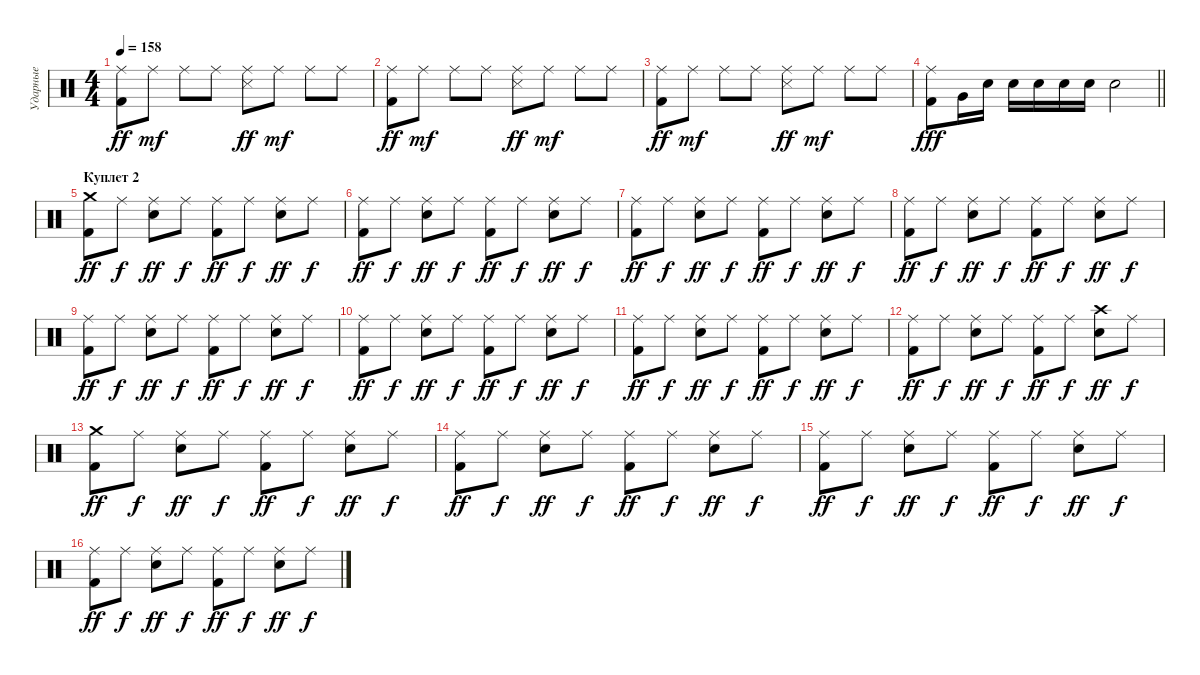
\track ("Ударные" "Ударные") {instrument percussion}
\staff {score}
\articulation defaults
\ts (4 4)
\tempo 158
\clef neutral
\ks c
("Ride (middle)" "Kick (hit) 2").8{dy ff} "Ride (middle)".8{dy mf} "Ride (middle)".8 "Ride (middle)".8 ("Ride (middle)" "Snare (side stick) 3").8{dy ff} "Ride (middle)".8{dy mf} "Ride (middle)".8 "Ride (middle)".8 |
("Ride (middle)" "Kick (hit) 2").8{dy ff} "Ride (middle)".8{dy mf} "Ride (middle)".8 "Ride (middle)".8 ("Ride (middle)" "Snare (side stick) 3").8{dy ff} "Ride (middle)".8{dy mf} "Ride (middle)".8 "Ride (middle)".8 |
("Ride (middle)" "Kick (hit) 2").8{dy ff} "Ride (middle)".8{dy mf} "Ride (middle)".8 "Ride (middle)".8 ("Ride (middle)" "Snare (side stick) 3").8{dy ff} "Ride (middle)".8{dy mf} "Ride (middle)".8 "Ride (middle)".8 |
\barLineRight lightlight
("Ride (middle)" "Kick (hit) 2").8{dy fff} "Very Low Tom (hit)".16 "Electric Snare (hit)".16 "Electric Snare (hit)".16 "Electric Snare (hit)".16 "Electric Snare (hit)".16 "Electric Snare (hit)".16 "Snare (hit) 2".2 |
\section ("" "Куплет 2")
("Crash medium (hit)" "Kick (hit) 2").8{dy ff} "Ride (middle)".8{dy f} ("Ride (middle)" "Electric Snare (hit)").8{dy ff} "Ride (middle)".8{dy f} ("Ride (middle)" "Kick (hit) 2").8{dy ff} "Ride (middle)".8{dy f} ("Ride (middle)" "Electric Snare (hit)").8{dy ff} "Ride (middle)".8{dy f} |
("Ride (middle)" "Kick (hit) 2").8{dy ff} "Ride (middle)".8{dy f} ("Ride (middle)" "Electric Snare (hit)").8{dy ff} "Ride (middle)".8{dy f} ("Ride (middle)" "Kick (hit) 2").8{dy ff} "Ride (middle)".8{dy f} ("Ride (middle)" "Electric Snare (hit)").8{dy ff} "Ride (middle)".8{dy f} |
("Ride (middle)" "Kick (hit) 2").8{dy ff} "Ride (middle)".8{dy f} ("Ride (middle)" "Electric Snare (hit)").8{dy ff} "Ride (middle)".8{dy f} ("Ride (middle)" "Kick (hit) 2").8{dy ff} "Ride (middle)".8{dy f} ("Ride (middle)" "Electric Snare (hit)").8{dy ff} "Ride (middle)".8{dy f} |
("Ride (middle)" "Kick (hit) 2").8{dy ff} "Ride (middle)".8{dy f} ("Ride (middle)" "Electric Snare (hit)").8{dy ff} "Ride (middle)".8{dy f} ("Ride (middle)" "Kick (hit) 2").8{dy ff} "Ride (middle)".8{dy f} ("Ride (middle)" "Electric Snare (hit)").8{dy ff} "Ride (middle)".8{dy f} |
("Ride (middle)" "Kick (hit) 2").8{dy ff} "Ride (middle)".8{dy f} ("Ride (middle)" "Electric Snare (hit)").8{dy ff} "Ride (middle)".8{dy f} ("Ride (middle)" "Kick (hit) 2").8{dy ff} "Ride (middle)".8{dy f} ("Ride (middle)" "Electric Snare (hit)").8{dy ff} "Ride (middle)".8{dy f} |
("Ride (middle)" "Kick (hit) 2").8{dy ff} "Ride (middle)".8{dy f} ("Ride (middle)" "Electric Snare (hit)").8{dy ff} "Ride (middle)".8{dy f} ("Ride (middle)" "Kick (hit) 2").8{dy ff} "Ride (middle)".8{dy f} ("Ride (middle)" "Electric Snare (hit)").8{dy ff} "Ride (middle)".8{dy f} |
("Ride (middle)" "Kick (hit) 2").8{dy ff} "Ride (middle)".8{dy f} ("Ride (middle)" "Electric Snare (hit)").8{dy ff} "Ride (middle)".8{dy f} ("Ride (middle)" "Kick (hit) 2").8{dy ff} "Ride (middle)".8{dy f} ("Ride (middle)" "Electric Snare (hit)").8{dy ff} "Ride (middle)".8{dy f} |
("Ride (middle)" "Kick (hit) 2").8{dy ff} "Ride (middle)".8{dy f} ("Ride (middle)" "Electric Snare (hit)").8{dy ff} "Ride (middle)".8{dy f} ("Ride (middle)" "Kick (hit) 2").8{dy ff} "Ride (middle)".8{dy f} ("Crash high (hit)" "Electric Snare (hit)").8{dy ff} "Ride (middle)".8{dy f} |
("Crash medium (hit)" "Kick (hit) 2").8{dy ff} "Ride (middle)".8{dy f} ("Ride (middle)" "Electric Snare (hit)").8{dy ff} "Ride (middle)".8{dy f} ("Ride (middle)" "Kick (hit) 2").8{dy ff} "Ride (middle)".8{dy f} ("Ride (middle)" "Electric Snare (hit)").8{dy ff} "Ride (middle)".8{dy f} |
("Ride (middle)" "Kick (hit) 2").8{dy ff} "Ride (middle)".8{dy f} ("Ride (middle)" "Electric Snare (hit)").8{dy ff} "Ride (middle)".8{dy f} ("Ride (middle)" "Kick (hit) 2").8{dy ff} "Ride (middle)".8{dy f} ("Ride (middle)" "Electric Snare (hit)").8{dy ff} "Ride (middle)".8{dy f} |
("Ride (middle)" "Kick (hit) 2").8{dy ff} "Ride (middle)".8{dy f} ("Ride (middle)" "Electric Snare (hit)").8{dy ff} "Ride (middle)".8{dy f} ("Ride (middle)" "Kick (hit) 2").8{dy ff} "Ride (middle)".8{dy f} ("Ride (middle)" "Electric Snare (hit)").8{dy ff} "Ride (middle)".8{dy f} |
("Ride (middle)" "Kick (hit) 2").8{dy ff} "Ride (middle)".8{dy f} ("Ride (middle)" "Electric Snare (hit)").8{dy ff} "Ride (middle)".8{dy f} ("Ride (middle)" "Kick (hit) 2").8{dy ff} "Ride (middle)".8{dy f} ("Ride (middle)" "Electric Snare (hit)").8{dy ff} "Ride (middle)".8{dy f}
